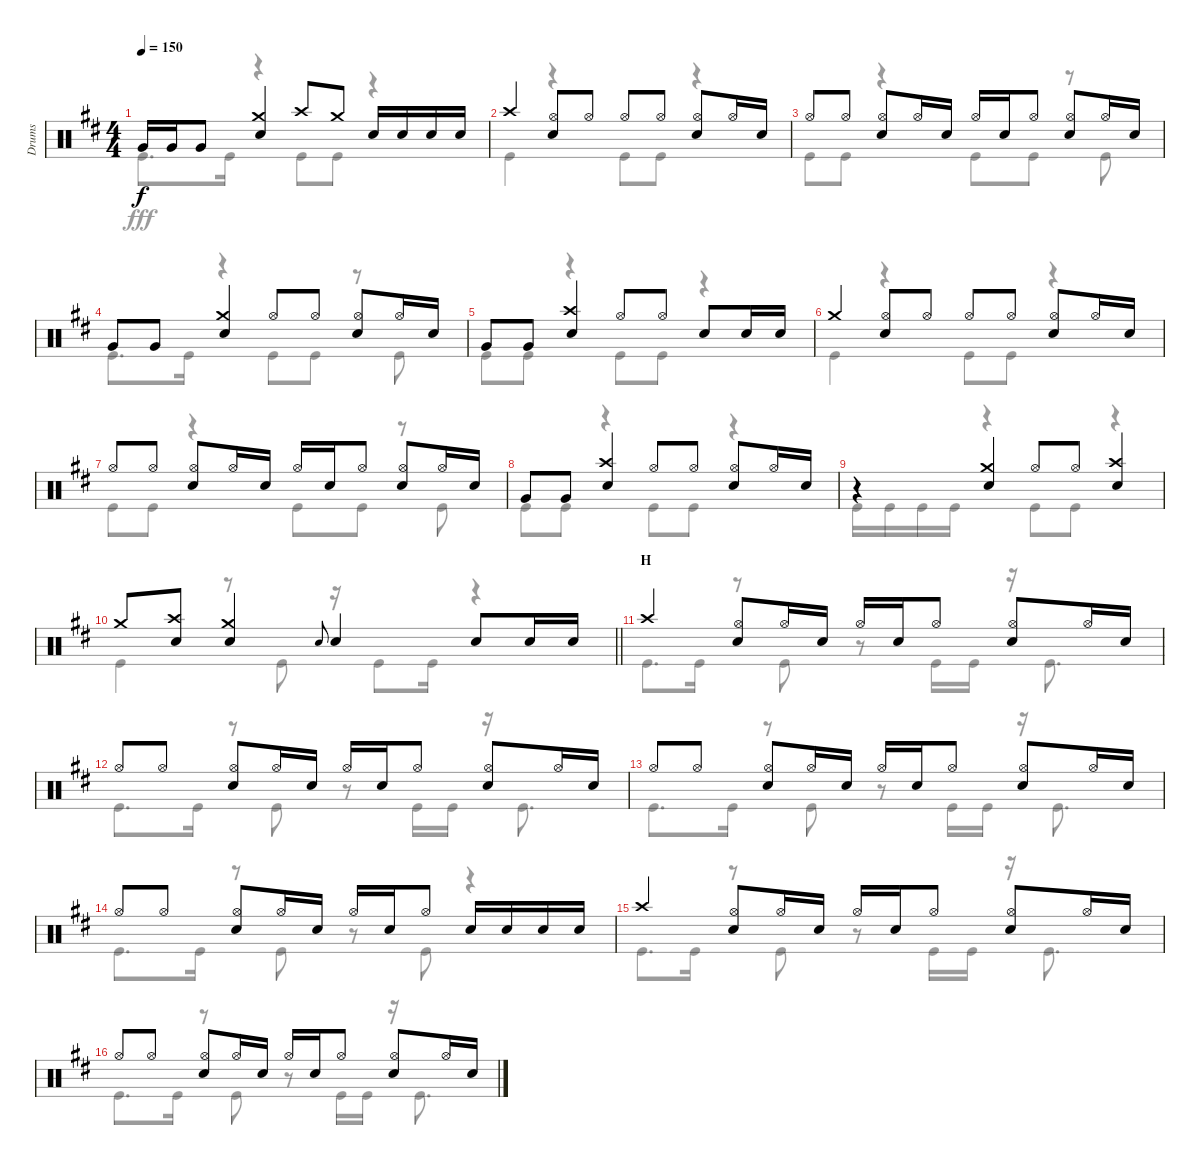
\track ("Drums" "Drums") {instrument percussion}
\staff {score}
\articulation defaults
\voice
\ts (4 4)
\tempo 150
\clef neutral
\ks d "Very Low Tom (hit)".16{dy f} "Very Low Tom (hit)".16 "Very Low Tom (hit)".8
("Crash medium (hit)" "Snare (hit) 2").4 "Crash high (hit)".8 "Crash medium (hit)".8 "Snare (hit) 2".16 "Snare (hit) 2".16 "Snare (hit) 2".16 "Snare (hit) 2".16 |
"Crash high (hit)".4 ("Hi-Hat (open)" "Snare (hit) 2").8 "Hi-Hat (open)".8 "Hi-Hat (open)".8 "Hi-Hat (open)".8 ("Hi-Hat (open)" "Snare (hit) 2").8 "Hi-Hat (open)".16 "Snare (hit) 2".16 |
"Hi-Hat (open)".8 "Hi-Hat (open)".8 ("Hi-Hat (open)" "Snare (hit) 2").8 "Hi-Hat (open)".16 "Snare (hit) 2".16 "Hi-Hat (open)".16 "Snare (hit) 2".16 "Hi-Hat (open)".8 ("Hi-Hat (open)" "Snare (hit) 2").8 "Hi-Hat (open)".16 "Snare (hit) 2".16 |
"Very Low Tom (hit)".8 "Very Low Tom (hit)".8 ("Crash medium (hit)" "Snare (hit) 2").4 "Hi-Hat (open)".8 "Hi-Hat (open)".8 ("Hi-Hat (open)" "Snare (hit) 2").8 "Hi-Hat (open)".16 "Snare (hit) 2".16 |
"Very Low Tom (hit)".8 "Very Low Tom (hit)".8 ("Crash high (hit)" "Snare (hit) 2").4 "Hi-Hat (open)".8 "Hi-Hat (open)".8 "Snare (hit) 2".8 "Snare (hit) 2".16 "Snare (hit) 2".16 |
"Crash medium (hit)".4 ("Hi-Hat (open)" "Snare (hit) 2").8 "Hi-Hat (open)".8 "Hi-Hat (open)".8 "Hi-Hat (open)".8 ("Hi-Hat (open)" "Snare (hit) 2").8 "Hi-Hat (open)".16 "Snare (hit) 2".16 |
"Hi-Hat (open)".8 "Hi-Hat (open)".8 ("Hi-Hat (open)" "Snare (hit) 2").8 "Hi-Hat (open)".16 "Snare (hit) 2".16 "Hi-Hat (open)".16 "Snare (hit) 2".16 "Hi-Hat (open)".8 ("Hi-Hat (open)" "Snare (hit) 2").8 "Hi-Hat (open)".16 "Snare (hit) 2".16 |
"Very Low Tom (hit)".8 "Very Low Tom (hit)".8 ("Crash high (hit)" "Snare (hit) 2").4 "Hi-Hat (open)".8 "Hi-Hat (open)".8 ("Hi-Hat (open)" "Snare (hit) 2").8 "Hi-Hat (open)".16 "Snare (hit) 2".16 |
r.4 ("Crash medium (hit)" "Snare (hit) 2").4 "Hi-Hat (open)".8 "Hi-Hat (open)".8 ("Crash high (hit)" "Snare (hit) 2").4 |
\barLineRight lightlight "Crash medium (hit)".8
("Crash high (hit)" "Snare (hit) 2").8 ("Crash medium (hit)" "Snare (hit) 2").4 "Snare (hit) 2".8{gr onbeat} "Snare (hit) 2".4 "Snare (hit) 2".8 "Snare (hit) 2".16 "Snare (hit) 2".16 |
\section ("" "H")
"Crash high (hit)".4 ("Hi-Hat (open)" "Snare (hit) 2").8 "Hi-Hat (open)".16 "Snare (hit) 2".16 "Hi-Hat (open)".16 "Snare (hit) 2".16 "Hi-Hat (open)".8 ("Hi-Hat (open)" "Snare (hit) 2").8 "Hi-Hat (open)".16 "Snare (hit) 2".16 |
"Hi-Hat (open)".8 "Hi-Hat (open)".8 ("Hi-Hat (open)" "Snare (hit) 2").8 "Hi-Hat (open)".16 "Snare (hit) 2".16 "Hi-Hat (open)".16 "Snare (hit) 2".16 "Hi-Hat (open)".8 ("Hi-Hat (open)" "Snare (hit) 2").8 "Hi-Hat (open)".16 "Snare (hit) 2".16 |
"Hi-Hat (open)".8 "Hi-Hat (open)".8 ("Hi-Hat (open)" "Snare (hit) 2").8 "Hi-Hat (open)".16 "Snare (hit) 2".16 "Hi-Hat (open)".16 "Snare (hit) 2".16 "Hi-Hat (open)".8 ("Hi-Hat (open)" "Snare (hit) 2").8 "Hi-Hat (open)".16 "Snare (hit) 2".16 |
"Hi-Hat (open)".8 "Hi-Hat (open)".8 ("Hi-Hat (open)" "Snare (hit) 2").8 "Hi-Hat (open)".16 "Snare (hit) 2".16 "Hi-Hat (open)".16 "Snare (hit) 2".16 "Hi-Hat (open)".8 "Snare (hit) 2".16 "Snare (hit) 2".16 "Snare (hit) 2".16 "Snare (hit) 2".16 |
"Crash high (hit)".4 ("Hi-Hat (open)" "Snare (hit) 2").8 "Hi-Hat (open)".16 "Snare (hit) 2".16 "Hi-Hat (open)".16 "Snare (hit) 2".16 "Hi-Hat (open)".8 ("Hi-Hat (open)" "Snare (hit) 2").8 "Hi-Hat (open)".16 "Snare (hit) 2".16 |
"Hi-Hat (open)".8 "Hi-Hat (open)".8 ("Hi-Hat (open)" "Snare (hit) 2").8 "Hi-Hat (open)".16 "Snare (hit) 2".16 "Hi-Hat (open)".16 "Snare (hit) 2".16 "Hi-Hat (open)".8 ("Hi-Hat (open)" "Snare (hit) 2").8 "Hi-Hat (open)".16 "Snare (hit) 2".16
\voice
\clef neutral
\ottava regular
\simile none
\ks d "Kick (hit)".8{d dy fff} "Kick (hit)".16
r.4 "Kick (hit)".8 "Kick (hit)".8 r.4 |
"Kick (hit)".4 r.4 "Kick (hit)".8 "Kick (hit)".8 r.4 |
"Kick (hit)".8 "Kick (hit)".8 r.4 "Kick (hit)".8 "Kick (hit)".8 r.8 "Kick (hit)".8 |
"Kick (hit)".8{d} "Kick (hit)".16 r.4 "Kick (hit)".8 "Kick (hit)".8 r.8 "Kick (hit)".8 |
"Kick (hit)".8 "Kick (hit)".8 r.4 "Kick (hit)".8 "Kick (hit)".8 r.4 |
"Kick (hit)".4 r.4 "Kick (hit)".8 "Kick (hit)".8 r.4 |
"Kick (hit)".8 "Kick (hit)".8 r.4 "Kick (hit)".8 "Kick (hit)".8 r.8 "Kick (hit)".8 |
"Kick (hit)".8 "Kick (hit)".8 r.4 "Kick (hit)".8 "Kick (hit)".8 r.4 |
"Kick (hit)".16 "Kick (hit)".16 "Kick (hit)".16 "Kick (hit)".16 r.4 "Kick (hit)".8 "Kick (hit)".8 r.4 |
\barLineRight lightlight "Kick (hit)".4
r.8 "Kick (hit)".8 r.16 "Kick (hit)".8 "Kick (hit)".16 r.4 |
"Kick (hit)".8{d} "Kick (hit)".16 r.8 "Kick (hit)".8 r.8 "Kick (hit)".16 "Kick (hit)".16 r.16 "Kick (hit)".8{d} |
"Kick (hit)".8{d} "Kick (hit)".16 r.8 "Kick (hit)".8 r.8 "Kick (hit)".16 "Kick (hit)".16 r.16 "Kick (hit)".8{d} |
"Kick (hit)".8{d} "Kick (hit)".16 r.8 "Kick (hit)".8 r.8 "Kick (hit)".16 "Kick (hit)".16 r.16 "Kick (hit)".8{d} |
"Kick (hit)".8{d} "Kick (hit)".16 r.8 "Kick (hit)".8 r.8 "Kick (hit)".8 r.4 |
"Kick (hit)".8{d} "Kick (hit)".16 r.8 "Kick (hit)".8 r.8 "Kick (hit)".16 "Kick (hit)".16 r.16 "Kick (hit)".8{d} |
"Kick (hit)".8{d} "Kick (hit)".16 r.8 "Kick (hit)".8 r.8 "Kick (hit)".16 "Kick (hit)".16 r.16 "Kick (hit)".8{d}
